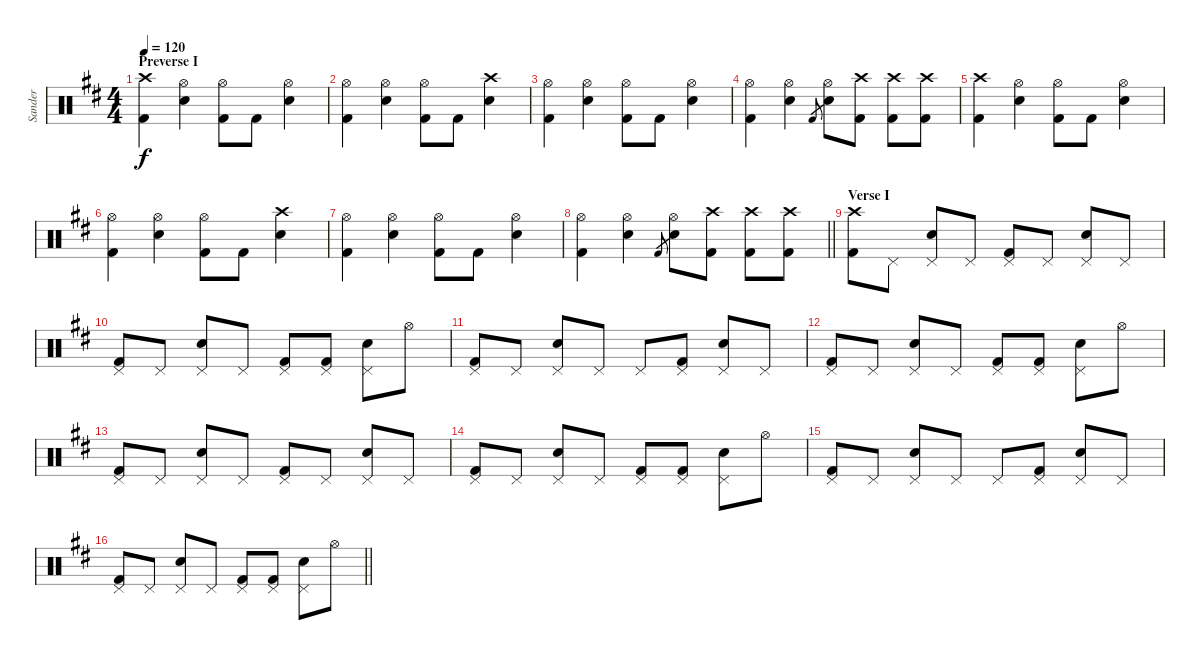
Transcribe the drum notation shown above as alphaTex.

\track ("Sander" "Sander") {instrument percussion}
\staff {score}
\articulation defaults
\ts (4 4)
\section ("" "Preverse I")
\tempo 120
\clef neutral
\ks bminor
("Crash high (hit)" "Kick (hit) 2").4{dy f} ("Hi-Hat (open)" "Snare (hit) 2").4 ("Hi-Hat (open)" "Kick (hit) 2").8 "Kick (hit) 2".8 ("Hi-Hat (open)" "Snare (hit) 2").4 |
("Hi-Hat (open)" "Kick (hit) 2").4 ("Hi-Hat (open)" "Snare (hit) 2").4 ("Hi-Hat (open)" "Kick (hit) 2").8 "Kick (hit) 2".8 ("Crash high (hit)" "Snare (hit) 2").4 |
("Hi-Hat (open)" "Kick (hit) 2").4 ("Hi-Hat (open)" "Snare (hit) 2").4 ("Hi-Hat (open)" "Kick (hit) 2").8 "Kick (hit) 2".8 ("Hi-Hat (open)" "Snare (hit) 2").4 |
("Hi-Hat (open)" "Kick (hit) 2").4 ("Hi-Hat (open)" "Snare (hit) 2").4 "Kick (hit) 2".8{gr} ("Hi-Hat (open)" "Snare (hit) 2").8 ("Crash high (hit)" "Kick (hit) 2").8 ("Crash high (hit)" "Kick (hit) 2").8 ("Crash high (hit)" "Kick (hit) 2").8 |
("Crash high (hit)" "Kick (hit) 2").4 ("Hi-Hat (open)" "Snare (hit) 2").4 ("Hi-Hat (open)" "Kick (hit) 2").8 "Kick (hit) 2".8 ("Hi-Hat (open)" "Snare (hit) 2").4 |
("Hi-Hat (open)" "Kick (hit) 2").4 ("Hi-Hat (open)" "Snare (hit) 2").4 ("Hi-Hat (open)" "Kick (hit) 2").8 "Kick (hit) 2".8 ("Crash high (hit)" "Snare (hit) 2").4 |
("Hi-Hat (open)" "Kick (hit) 2").4 ("Hi-Hat (open)" "Snare (hit) 2").4 ("Hi-Hat (open)" "Kick (hit) 2").8 "Kick (hit) 2".8 ("Hi-Hat (open)" "Snare (hit) 2").4 |
\barLineRight lightlight
("Hi-Hat (open)" "Kick (hit) 2").4 ("Hi-Hat (open)" "Snare (hit) 2").4 "Kick (hit) 2".8{gr} ("Hi-Hat (open)" "Snare (hit) 2").8 ("Crash high (hit)" "Kick (hit) 2").8 ("Crash high (hit)" "Kick (hit) 2").8 ("Crash high (hit)" "Kick (hit) 2").8 |
\section ("" "Verse I")
("Crash high (hit)" "Kick (hit) 2").8 "Pedal Hi-Hat (hit)".8 ("Pedal Hi-Hat (hit)" "Snare (hit) 2").8 "Pedal Hi-Hat (hit)".8 ("Pedal Hi-Hat (hit)" "Kick (hit) 2").8 "Pedal Hi-Hat (hit)".8 ("Pedal Hi-Hat (hit)" "Snare (hit) 2").8 "Pedal Hi-Hat (hit)".8 |
("Pedal Hi-Hat (hit)" "Kick (hit) 2").8 "Pedal Hi-Hat (hit)".8 ("Pedal Hi-Hat (hit)" "Snare (hit) 2").8 "Pedal Hi-Hat (hit)".8 ("Pedal Hi-Hat (hit)" "Kick (hit) 2").8 ("Pedal Hi-Hat (hit)" "Kick (hit) 2").8 ("Pedal Hi-Hat (hit)" "Snare (hit) 2").8 "Hi-Hat (open)".8 |
("Pedal Hi-Hat (hit)" "Kick (hit) 2").8 "Pedal Hi-Hat (hit)".8 ("Pedal Hi-Hat (hit)" "Snare (hit) 2").8 "Pedal Hi-Hat (hit)".8 "Pedal Hi-Hat (hit)".8 ("Pedal Hi-Hat (hit)" "Kick (hit) 2").8 ("Pedal Hi-Hat (hit)" "Snare (hit) 2").8 "Pedal Hi-Hat (hit)".8 |
("Pedal Hi-Hat (hit)" "Kick (hit) 2").8 "Pedal Hi-Hat (hit)".8 ("Pedal Hi-Hat (hit)" "Snare (hit) 2").8 "Pedal Hi-Hat (hit)".8 ("Pedal Hi-Hat (hit)" "Kick (hit) 2").8 ("Pedal Hi-Hat (hit)" "Kick (hit) 2").8 ("Pedal Hi-Hat (hit)" "Snare (hit) 2").8 "Hi-Hat (open)".8 |
("Pedal Hi-Hat (hit)" "Kick (hit) 2").8 "Pedal Hi-Hat (hit)".8 ("Pedal Hi-Hat (hit)" "Snare (hit) 2").8 "Pedal Hi-Hat (hit)".8 ("Pedal Hi-Hat (hit)" "Kick (hit) 2").8 "Pedal Hi-Hat (hit)".8 ("Pedal Hi-Hat (hit)" "Snare (hit) 2").8 "Pedal Hi-Hat (hit)".8 |
("Pedal Hi-Hat (hit)" "Kick (hit) 2").8 "Pedal Hi-Hat (hit)".8 ("Pedal Hi-Hat (hit)" "Snare (hit) 2").8 "Pedal Hi-Hat (hit)".8 ("Pedal Hi-Hat (hit)" "Kick (hit) 2").8 ("Pedal Hi-Hat (hit)" "Kick (hit) 2").8 ("Pedal Hi-Hat (hit)" "Snare (hit) 2").8 "Hi-Hat (open)".8 |
("Pedal Hi-Hat (hit)" "Kick (hit) 2").8 "Pedal Hi-Hat (hit)".8 ("Pedal Hi-Hat (hit)" "Snare (hit) 2").8 "Pedal Hi-Hat (hit)".8 "Pedal Hi-Hat (hit)".8 ("Pedal Hi-Hat (hit)" "Kick (hit) 2").8 ("Pedal Hi-Hat (hit)" "Snare (hit) 2").8 "Pedal Hi-Hat (hit)".8 |
\barLineRight lightlight
("Pedal Hi-Hat (hit)" "Kick (hit) 2").8 "Pedal Hi-Hat (hit)".8 ("Pedal Hi-Hat (hit)" "Snare (hit) 2").8 "Pedal Hi-Hat (hit)".8 ("Pedal Hi-Hat (hit)" "Kick (hit) 2").8 ("Pedal Hi-Hat (hit)" "Kick (hit) 2").8 ("Pedal Hi-Hat (hit)" "Snare (hit) 2").8 "Hi-Hat (open)".8
